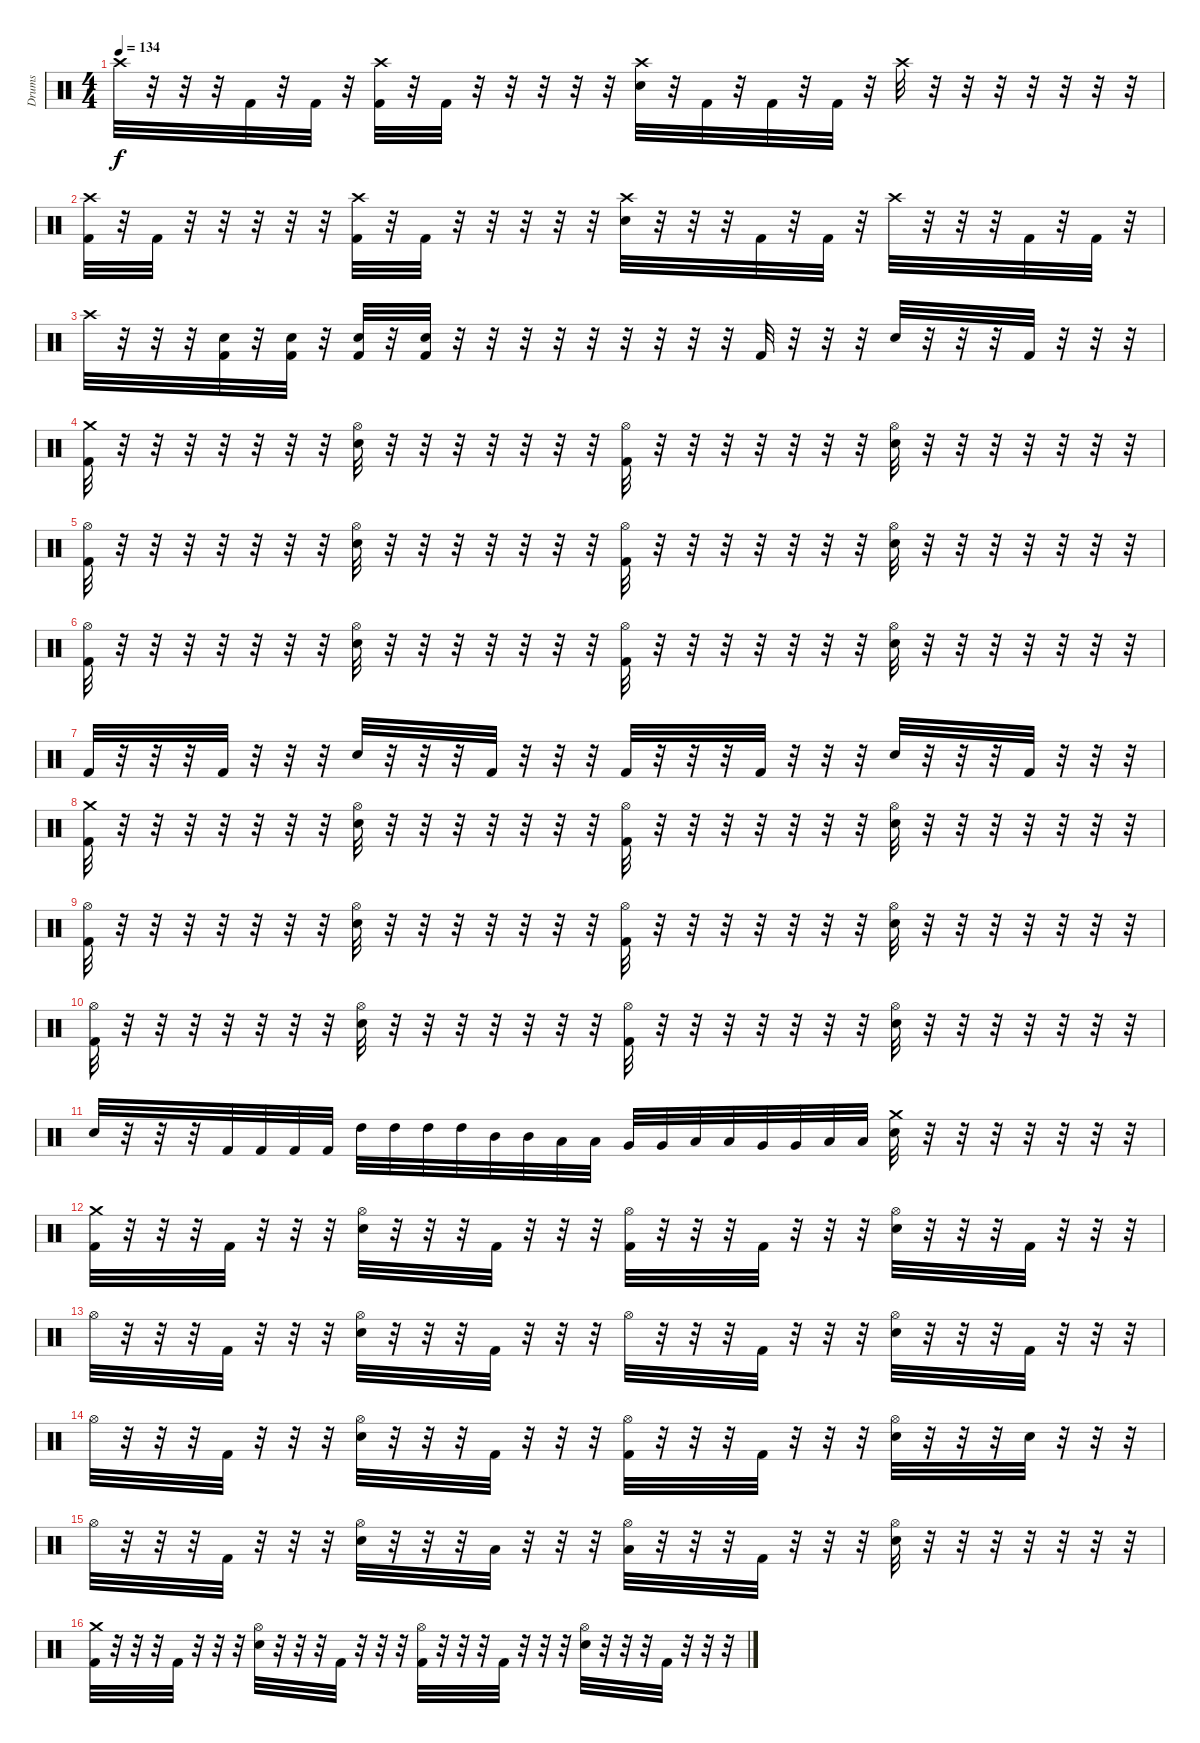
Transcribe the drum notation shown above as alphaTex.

\track ("Drums" "Drums") {instrument percussion}
\staff {score}
\articulation defaults
\ts (4 4)
\tempo 134
\clef neutral
\ks c "Crash high (hit)".32{dy f}
r.32 r.32 r.32 "Kick (hit) 2".32 r.32 "Kick (hit) 2".32 r.32 ("Kick (hit) 2" "Crash high (hit)").32 r.32 "Kick (hit) 2".32 r.32 r.32 r.32 r.32 r.32 ("Electric Snare (hit)" "Crash high (hit)").32 r.32 "Kick (hit) 2".32 r.32 "Kick (hit) 2".32 r.32 "Kick (hit) 2".32 r.32 "Crash high (hit)".32 r.32 r.32 r.32 r.32 r.32 r.32 r.32 |
("Kick (hit) 2" "Crash high (hit)").32 r.32 "Kick (hit) 2".32 r.32 r.32 r.32 r.32 r.32 ("Kick (hit) 2" "Crash high (hit)").32 r.32 "Kick (hit) 2".32 r.32 r.32 r.32 r.32 r.32 ("Electric Snare (hit)" "Crash high (hit)").32 r.32 r.32 r.32 "Kick (hit) 2".32 r.32 "Kick (hit) 2".32 r.32 "Crash high (hit)".32 r.32 r.32 r.32 "Kick (hit) 2".32 r.32 "Kick (hit) 2".32 r.32 |
"Crash high (hit)".32 r.32 r.32 r.32 ("Kick (hit) 2" "Electric Snare (hit)").32 r.32 ("Kick (hit) 2" "Electric Snare (hit)").32 r.32 ("Kick (hit) 2" "Electric Snare (hit)").32 r.32 ("Kick (hit) 2" "Electric Snare (hit)").32 r.32 r.32 r.32 r.32 r.32 r.32 r.32 r.32 r.32 "Kick (hit) 2".32 r.32 r.32 r.32 "Electric Snare (hit)".32 r.32 r.32 r.32 "Kick (hit) 2".32 r.32 r.32 r.32 |
("Kick (hit) 2" "Crash medium (hit)").32 r.32 r.32 r.32 r.32 r.32 r.32 r.32 ("Electric Snare (hit)" "Hi-Hat (open)").32 r.32 r.32 r.32 r.32 r.32 r.32 r.32 ("Kick (hit) 2" "Hi-Hat (open)").32 r.32 r.32 r.32 r.32 r.32 r.32 r.32 ("Electric Snare (hit)" "Hi-Hat (open)").32 r.32 r.32 r.32 r.32 r.32 r.32 r.32 |
("Kick (hit) 2" "Hi-Hat (open)").32 r.32 r.32 r.32 r.32 r.32 r.32 r.32 ("Electric Snare (hit)" "Hi-Hat (open)").32 r.32 r.32 r.32 r.32 r.32 r.32 r.32 ("Kick (hit) 2" "Hi-Hat (open)").32 r.32 r.32 r.32 r.32 r.32 r.32 r.32 ("Electric Snare (hit)" "Hi-Hat (open)").32 r.32 r.32 r.32 r.32 r.32 r.32 r.32 |
("Kick (hit) 2" "Hi-Hat (open)").32 r.32 r.32 r.32 r.32 r.32 r.32 r.32 ("Electric Snare (hit)" "Hi-Hat (open)").32 r.32 r.32 r.32 r.32 r.32 r.32 r.32 ("Kick (hit) 2" "Hi-Hat (open)").32 r.32 r.32 r.32 r.32 r.32 r.32 r.32 ("Electric Snare (hit)" "Hi-Hat (open)").32 r.32 r.32 r.32 r.32 r.32 r.32 r.32 |
"Kick (hit) 2".32 r.32 r.32 r.32 "Kick (hit) 2".32 r.32 r.32 r.32 "Electric Snare (hit)".32 r.32 r.32 r.32 "Kick (hit) 2".32 r.32 r.32 r.32 "Kick (hit) 2".32 r.32 r.32 r.32 "Kick (hit) 2".32 r.32 r.32 r.32 "Electric Snare (hit)".32 r.32 r.32 r.32 "Kick (hit) 2".32 r.32 r.32 r.32 |
("Kick (hit) 2" "Crash medium (hit)").32 r.32 r.32 r.32 r.32 r.32 r.32 r.32 ("Electric Snare (hit)" "Hi-Hat (open)").32 r.32 r.32 r.32 r.32 r.32 r.32 r.32 ("Kick (hit) 2" "Hi-Hat (open)").32 r.32 r.32 r.32 r.32 r.32 r.32 r.32 ("Electric Snare (hit)" "Hi-Hat (open)").32 r.32 r.32 r.32 r.32 r.32 r.32 r.32 |
("Kick (hit) 2" "Hi-Hat (open)").32 r.32 r.32 r.32 r.32 r.32 r.32 r.32 ("Electric Snare (hit)" "Hi-Hat (open)").32 r.32 r.32 r.32 r.32 r.32 r.32 r.32 ("Kick (hit) 2" "Hi-Hat (open)").32 r.32 r.32 r.32 r.32 r.32 r.32 r.32 ("Electric Snare (hit)" "Hi-Hat (open)").32 r.32 r.32 r.32 r.32 r.32 r.32 r.32 |
("Kick (hit) 2" "Hi-Hat (open)").32 r.32 r.32 r.32 r.32 r.32 r.32 r.32 ("Electric Snare (hit)" "Hi-Hat (open)").32 r.32 r.32 r.32 r.32 r.32 r.32 r.32 ("Kick (hit) 2" "Hi-Hat (open)").32 r.32 r.32 r.32 r.32 r.32 r.32 r.32 ("Electric Snare (hit)" "Hi-Hat (open)").32 r.32 r.32 r.32 r.32 r.32 r.32 r.32 |
"Electric Snare (hit)".32 r.32 r.32 r.32 "Kick (hit) 2".32 "Kick (hit) 2".32 "Kick (hit) 2".32 "Kick (hit) 2".32 "High Tom (hit)".32 "High Tom (hit)".32 "High Tom (hit)".32 "High Tom (hit)".32 "Mid Tom (hit)".32 "Mid Tom (hit)".32 "Low Tom (hit)".32 "Low Tom (hit)".32 "Very Low Tom (hit)".32 "Very Low Tom (hit)".32 "Low Floor Tom (hit)".32 "Low Floor Tom (hit)".32 "Very Low Tom (hit)".32 "Very Low Tom (hit)".32 "Low Floor Tom (hit)".32 "Low Floor Tom (hit)".32 ("Electric Snare (hit)" "Crash medium (hit)").32 r.32 r.32 r.32 r.32 r.32 r.32 r.32 |
("Kick (hit) 2" "Crash medium (hit)").32 r.32 r.32 r.32 "Kick (hit) 2".32 r.32 r.32 r.32 ("Electric Snare (hit)" "Hi-Hat (open)").32 r.32 r.32 r.32 "Kick (hit) 2".32 r.32 r.32 r.32 ("Kick (hit) 2" "Hi-Hat (open)").32 r.32 r.32 r.32 "Kick (hit) 2".32 r.32 r.32 r.32 ("Electric Snare (hit)" "Hi-Hat (open)").32 r.32 r.32 r.32 "Kick (hit) 2".32 r.32 r.32 r.32 |
"Hi-Hat (open)".32 r.32 r.32 r.32 "Kick (hit) 2".32 r.32 r.32 r.32 ("Electric Snare (hit)" "Hi-Hat (open)").32 r.32 r.32 r.32 "Kick (hit) 2".32 r.32 r.32 r.32 "Hi-Hat (open)".32 r.32 r.32 r.32 "Kick (hit) 2".32 r.32 r.32 r.32 ("Electric Snare (hit)" "Hi-Hat (open)").32 r.32 r.32 r.32 "Kick (hit) 2".32 r.32 r.32 r.32 |
"Hi-Hat (open)".32 r.32 r.32 r.32 "Kick (hit) 2".32 r.32 r.32 r.32 ("Electric Snare (hit)" "Hi-Hat (open)").32 r.32 r.32 r.32 "Kick (hit) 2".32 r.32 r.32 r.32 ("Kick (hit) 2" "Hi-Hat (open)").32 r.32 r.32 r.32 "Kick (hit) 2".32 r.32 r.32 r.32 ("Electric Snare (hit)" "Hi-Hat (open)").32 r.32 r.32 r.32 "Electric Snare (hit)".32 r.32 r.32 r.32 |
"Hi-Hat (open)".32 r.32 r.32 r.32 "Kick (hit) 2".32 r.32 r.32 r.32 ("Electric Snare (hit)" "Hi-Hat (open)").32 r.32 r.32 r.32 "Low Tom (hit)".32 r.32 r.32 r.32 ("Low Floor Tom (hit)" "Hi-Hat (open)").32 r.32 r.32 r.32 "Kick (hit) 2".32 r.32 r.32 r.32 ("Electric Snare (hit)" "Hi-Hat (open)").32 r.32 r.32 r.32 r.32 r.32 r.32 r.32 |
("Kick (hit) 2" "Crash medium (hit)").32 r.32 r.32 r.32 "Kick (hit) 2".32 r.32 r.32 r.32 ("Electric Snare (hit)" "Hi-Hat (open)").32 r.32 r.32 r.32 "Kick (hit) 2".32 r.32 r.32 r.32 ("Kick (hit) 2" "Hi-Hat (open)").32 r.32 r.32 r.32 "Kick (hit) 2".32 r.32 r.32 r.32 ("Electric Snare (hit)" "Hi-Hat (open)").32 r.32 r.32 r.32 "Kick (hit) 2".32 r.32 r.32 r.32
